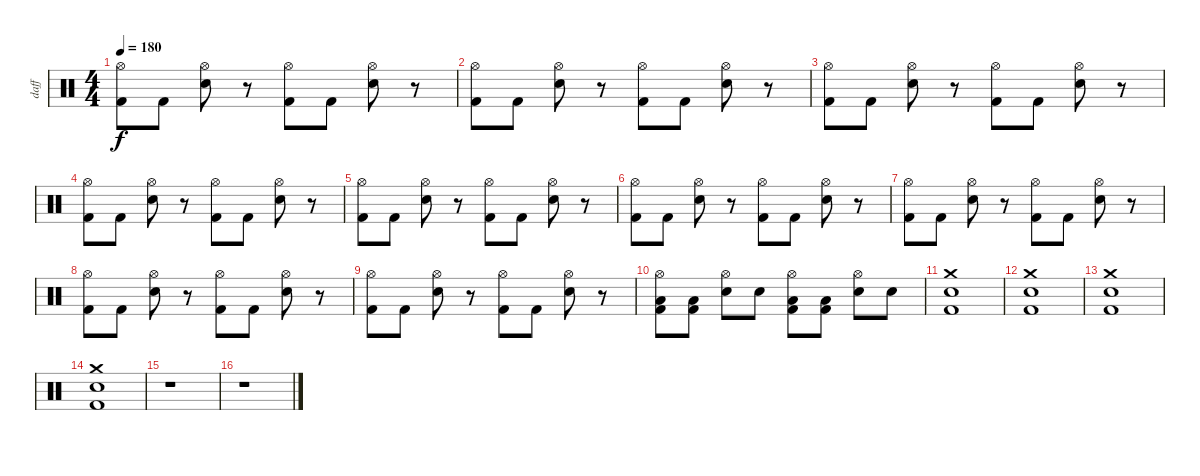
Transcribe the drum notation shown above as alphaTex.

\track ("daff" "daff") {instrument percussion}
\staff {score}
\articulation defaults
\ts (4 4)
\tempo 180
\clef neutral
\ks c
("Hi-Hat (open)" "Kick (hit) 2").8{dy f} "Kick (hit) 2".8 ("Hi-Hat (open)" "Snare (hit) 2").8 r.8 ("Hi-Hat (open)" "Kick (hit) 2").8 "Kick (hit) 2".8 ("Hi-Hat (open)" "Snare (hit) 2").8 r.8 |
("Hi-Hat (open)" "Kick (hit) 2").8 "Kick (hit) 2".8 ("Hi-Hat (open)" "Snare (hit) 2").8 r.8 ("Hi-Hat (open)" "Kick (hit) 2").8 "Kick (hit) 2".8 ("Hi-Hat (open)" "Snare (hit) 2").8 r.8 |
("Hi-Hat (open)" "Kick (hit) 2").8 "Kick (hit) 2".8 ("Hi-Hat (open)" "Snare (hit) 2").8 r.8 ("Hi-Hat (open)" "Kick (hit) 2").8 "Kick (hit) 2".8 ("Hi-Hat (open)" "Snare (hit) 2").8 r.8 |
("Hi-Hat (open)" "Kick (hit) 2").8 "Kick (hit) 2".8 ("Hi-Hat (open)" "Snare (hit) 2").8 r.8 ("Hi-Hat (open)" "Kick (hit) 2").8 "Kick (hit) 2".8 ("Hi-Hat (open)" "Snare (hit) 2").8 r.8 |
("Hi-Hat (open)" "Kick (hit) 2").8 "Kick (hit) 2".8 ("Hi-Hat (open)" "Snare (hit) 2").8 r.8 ("Hi-Hat (open)" "Kick (hit) 2").8 "Kick (hit) 2".8 ("Hi-Hat (open)" "Snare (hit) 2").8 r.8 |
("Hi-Hat (open)" "Kick (hit) 2").8 "Kick (hit) 2".8 ("Hi-Hat (open)" "Snare (hit) 2").8 r.8 ("Hi-Hat (open)" "Kick (hit) 2").8 "Kick (hit) 2".8 ("Hi-Hat (open)" "Snare (hit) 2").8 r.8 |
("Hi-Hat (open)" "Kick (hit) 2").8 "Kick (hit) 2".8 ("Hi-Hat (open)" "Snare (hit) 2").8 r.8 ("Hi-Hat (open)" "Kick (hit) 2").8 "Kick (hit) 2".8 ("Hi-Hat (open)" "Snare (hit) 2").8 r.8 |
("Hi-Hat (open)" "Kick (hit) 2").8 "Kick (hit) 2".8 ("Hi-Hat (open)" "Snare (hit) 2").8 r.8 ("Hi-Hat (open)" "Kick (hit) 2").8 "Kick (hit) 2".8 ("Hi-Hat (open)" "Snare (hit) 2").8 r.8 |
("Hi-Hat (open)" "Kick (hit) 2").8 "Kick (hit) 2".8 ("Hi-Hat (open)" "Snare (hit) 2").8 r.8 ("Hi-Hat (open)" "Kick (hit) 2").8 "Kick (hit) 2".8 ("Hi-Hat (open)" "Snare (hit) 2").8 r.8 |
("Hi-Hat (open)" "Low Tom (hit)" "Kick (hit) 2").8 ("Low Tom (hit)" "Kick (hit) 2").8 ("Hi-Hat (open)" "Snare (hit) 2").8 "Snare (hit) 2".8 ("Hi-Hat (open)" "Low Tom (hit)" "Kick (hit) 2").8 ("Low Tom (hit)" "Kick (hit) 2").8 ("Hi-Hat (open)" "Snare (hit) 2").8 "Snare (hit) 2".8 |
("Crash medium (hit)" "Snare (hit) 2" "Kick (hit) 2").1 |
("Crash medium (hit)" "Snare (hit) 2" "Kick (hit) 2").1 |
("Crash medium (hit)" "Snare (hit) 2" "Kick (hit) 2").1 |
("Crash medium (hit)" "Snare (hit) 2" "Kick (hit) 2").1 |
r.1 |
r.1
